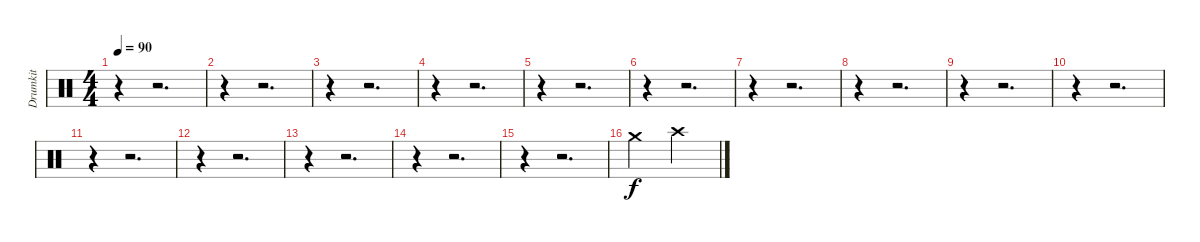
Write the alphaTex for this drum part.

\track ("Drumkit" "Drumkit") {instrument percussion}
\staff {score}
\articulation defaults
\ts (4 4)
\tempo 90
\clef neutral
\ks c
r.4{dy f} r.2{d} |
r.4 r.2{d} |
r.4 r.2{d} |
r.4 r.2{d} |
r.4 r.2{d} |
r.4 r.2{d} |
r.4 r.2{d} |
r.4 r.2{d} |
r.4 r.2{d} |
r.4 r.2{d} |
r.4 r.2{d} |
r.4 r.2{d} |
r.4 r.2{d} |
r.4 r.2{d} |
r.4 r.2{d} |
"Crash medium (hit)".2 "Crash high (hit)".2
